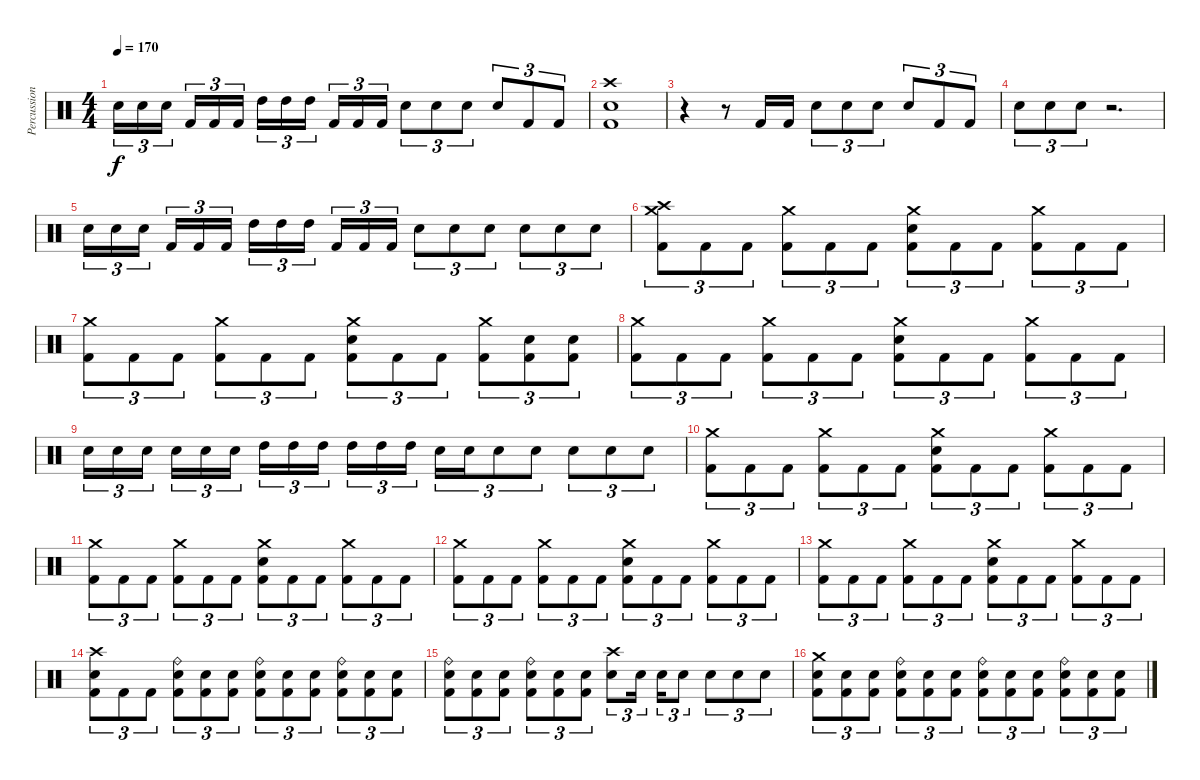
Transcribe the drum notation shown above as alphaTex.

\track ("Percussion" "Percussion") {instrument percussion}
\staff {score}
\articulation defaults
\ts (4 4)
\tempo 170
\clef neutral
\ks c "Electric Snare (hit)".16{tu (3 2) dy f} "Electric Snare (hit)".16{tu (3 2)} "Electric Snare (hit)".16{tu (3 2)} "Kick (hit) 2".16{tu (3 2)} "Kick (hit) 2".16{tu (3 2)} "Kick (hit) 2".16{tu (3 2)} "High Tom (hit)".16{tu (3 2)} "High Tom (hit)".16{tu (3 2)} "High Tom (hit)".16{tu (3 2)} "Kick (hit) 2".16{tu (3 2)} "Kick (hit) 2".16{tu (3 2)} "Kick (hit) 2".16{tu (3 2)} "Electric Snare (hit)".8{tu (3 2)} "Electric Snare (hit)".8{tu (3 2)} "Electric Snare (hit)".8{tu (3 2)} "Electric Snare (hit)".8{tu (3 2)} "Kick (hit) 2".8{tu (3 2)} "Kick (hit) 2".8{tu (3 2)}
|
("Crash high (hit)" "Electric Snare (hit)" "Kick (hit) 2").1 |
r.4 r.8 "Kick (hit) 2".16 "Kick (hit) 2".16 "Electric Snare (hit)".8{tu (3 2)} "Electric Snare (hit)".8{tu (3 2)} "Electric Snare (hit)".8{tu (3 2)} "Electric Snare (hit)".8{tu (3 2)} "Kick (hit) 2".8{tu (3 2)} "Kick (hit) 2".8{tu (3 2)} |
"Electric Snare (hit)".8{tu (3 2)} "Electric Snare (hit)".8{tu (3 2)} "Electric Snare (hit)".8{tu (3 2)} r.2{d} |
"Electric Snare (hit)".16{tu (3 2)} "Electric Snare (hit)".16{tu (3 2)} "Electric Snare (hit)".16{tu (3 2)} "Kick (hit) 2".16{tu (3 2)} "Kick (hit) 2".16{tu (3 2)} "Kick (hit) 2".16{tu (3 2)} "High Tom (hit)".16{tu (3 2)} "High Tom (hit)".16{tu (3 2)} "High Tom (hit)".16{tu (3 2)} "Kick (hit) 2".16{tu (3 2)} "Kick (hit) 2".16{tu (3 2)} "Kick (hit) 2".16{tu (3 2)} "Electric Snare (hit)".8{tu (3 2)} "Electric Snare (hit)".8{tu (3 2)} "Electric Snare (hit)".8{tu (3 2)} "Electric Snare (hit)".8{tu (3 2)} "Electric Snare (hit)".8{tu (3 2)} "Electric Snare (hit)".8{tu (3 2)} |
("Crash high (hit)" "Crash medium (hit)" "Kick (hit) 2").8{tu (3 2)} "Kick (hit) 2".8{tu (3 2)} "Kick (hit) 2".8{tu (3 2)} ("Crash medium (hit)" "Kick (hit) 2").8{tu (3 2)} "Kick (hit) 2".8{tu (3 2)} "Kick (hit) 2".8{tu (3 2)} ("Crash medium (hit)" "Electric Snare (hit)" "Kick (hit) 2").8{tu (3 2)} "Kick (hit) 2".8{tu (3 2)} "Kick (hit) 2".8{tu (3 2)} ("Crash medium (hit)" "Kick (hit) 2").8{tu (3 2)} "Kick (hit) 2".8{tu (3 2)} "Kick (hit) 2".8{tu (3 2)} |
("Crash medium (hit)" "Kick (hit) 2").8{tu (3 2)} "Kick (hit) 2".8{tu (3 2)} "Kick (hit) 2".8{tu (3 2)} ("Crash medium (hit)" "Kick (hit) 2").8{tu (3 2)} "Kick (hit) 2".8{tu (3 2)} "Kick (hit) 2".8{tu (3 2)} ("Crash medium (hit)" "Electric Snare (hit)" "Kick (hit) 2").8{tu (3 2)} "Kick (hit) 2".8{tu (3 2)} "Kick (hit) 2".8{tu (3 2)} ("Crash medium (hit)" "Kick (hit) 2").8{tu (3 2)} ("Electric Snare (hit)" "Kick (hit) 2").8{tu (3 2)} ("Electric Snare (hit)" "Kick (hit) 2").8{tu (3 2)} |
("Crash medium (hit)" "Kick (hit) 2").8{tu (3 2)} "Kick (hit) 2".8{tu (3 2)} "Kick (hit) 2".8{tu (3 2)} ("Crash medium (hit)" "Kick (hit) 2").8{tu (3 2)} "Kick (hit) 2".8{tu (3 2)} "Kick (hit) 2".8{tu (3 2)} ("Crash medium (hit)" "Electric Snare (hit)" "Kick (hit) 2").8{tu (3 2)} "Kick (hit) 2".8{tu (3 2)} "Kick (hit) 2".8{tu (3 2)} ("Crash medium (hit)" "Kick (hit) 2").8{tu (3 2)} "Kick (hit) 2".8{tu (3 2)} "Kick (hit) 2".8{tu (3 2)} |
"Electric Snare (hit)".16{tu (3 2)} "Electric Snare (hit)".16{tu (3 2)} "Electric Snare (hit)".16{tu (3 2)} "Electric Snare (hit)".16{tu (3 2)} "Electric Snare (hit)".16{tu (3 2)} "Electric Snare (hit)".16{tu (3 2)} "High Tom (hit)".16{tu (3 2)} "High Tom (hit)".16{tu (3 2)} "High Tom (hit)".16{tu (3 2)} "High Tom (hit)".16{tu (3 2)} "High Tom (hit)".16{tu (3 2)} "High Tom (hit)".16{tu (3 2)} "Electric Snare (hit)".16{tu (3 2)} "Electric Snare (hit)".16{tu (3 2)} "Electric Snare (hit)".8{tu (3 2)} "Electric Snare (hit)".8{tu (3 2)} "Electric Snare (hit)".8{tu (3 2)} "Electric Snare (hit)".8{tu (3 2)} "Electric Snare (hit)".8{tu (3 2)} |
("Crash medium (hit)" "Kick (hit) 2").8{tu (3 2)} "Kick (hit) 2".8{tu (3 2)} "Kick (hit) 2".8{tu (3 2)} ("Crash medium (hit)" "Kick (hit) 2").8{tu (3 2)} "Kick (hit) 2".8{tu (3 2)} "Kick (hit) 2".8{tu (3 2)} ("Crash medium (hit)" "Electric Snare (hit)" "Kick (hit) 2").8{tu (3 2)} "Kick (hit) 2".8{tu (3 2)} "Kick (hit) 2".8{tu (3 2)} ("Crash medium (hit)" "Kick (hit) 2").8{tu (3 2)} "Kick (hit) 2".8{tu (3 2)} "Kick (hit) 2".8{tu (3 2)} |
("Crash medium (hit)" "Kick (hit) 2").8{tu (3 2)} "Kick (hit) 2".8{tu (3 2)} "Kick (hit) 2".8{tu (3 2)} ("Crash medium (hit)" "Kick (hit) 2").8{tu (3 2)} "Kick (hit) 2".8{tu (3 2)} "Kick (hit) 2".8{tu (3 2)} ("Crash medium (hit)" "Electric Snare (hit)" "Kick (hit) 2").8{tu (3 2)} "Kick (hit) 2".8{tu (3 2)} "Kick (hit) 2".8{tu (3 2)} ("Crash medium (hit)" "Kick (hit) 2").8{tu (3 2)} "Kick (hit) 2".8{tu (3 2)} "Kick (hit) 2".8{tu (3 2)} |
("Crash medium (hit)" "Kick (hit) 2").8{tu (3 2)} "Kick (hit) 2".8{tu (3 2)} "Kick (hit) 2".8{tu (3 2)} ("Crash medium (hit)" "Kick (hit) 2").8{tu (3 2)} "Kick (hit) 2".8{tu (3 2)} "Kick (hit) 2".8{tu (3 2)} ("Crash medium (hit)" "Electric Snare (hit)" "Kick (hit) 2").8{tu (3 2)} "Kick (hit) 2".8{tu (3 2)} "Kick (hit) 2".8{tu (3 2)} ("Crash medium (hit)" "Kick (hit) 2").8{tu (3 2)} "Kick (hit) 2".8{tu (3 2)} "Kick (hit) 2".8{tu (3 2)} |
("Crash medium (hit)" "Kick (hit) 2").8{tu (3 2)} "Kick (hit) 2".8{tu (3 2)} "Kick (hit) 2".8{tu (3 2)} ("Crash medium (hit)" "Kick (hit) 2").8{tu (3 2)} "Kick (hit) 2".8{tu (3 2)} "Kick (hit) 2".8{tu (3 2)} ("Crash medium (hit)" "Electric Snare (hit)" "Kick (hit) 2").8{tu (3 2)} "Kick (hit) 2".8{tu (3 2)} "Kick (hit) 2".8{tu (3 2)} ("Crash medium (hit)" "Kick (hit) 2").8{tu (3 2)} "Kick (hit) 2".8{tu (3 2)} "Kick (hit) 2".8{tu (3 2)} |
("Crash high (hit)" "Electric Snare (hit)" "Kick (hit) 2").8{tu (3 2)} "Kick (hit) 2".8{tu (3 2)} "Kick (hit) 2".8{tu (3 2)} ("Ride (bell)" "Electric Snare (hit)" "Kick (hit) 2").8{tu (3 2)} ("Electric Snare (hit)" "Kick (hit) 2").8{tu (3 2)} ("Electric Snare (hit)" "Kick (hit) 2").8{tu (3 2)} ("Ride (bell)" "Electric Snare (hit)" "Kick (hit) 2").8{tu (3 2)} ("Electric Snare (hit)" "Kick (hit) 2").8{tu (3 2)} ("Electric Snare (hit)" "Kick (hit) 2").8{tu (3 2)} ("Ride (bell)" "Electric Snare (hit)" "Kick (hit) 2").8{tu (3 2)} ("Electric Snare (hit)" "Kick (hit) 2").8{tu (3 2)} ("Electric Snare (hit)" "Kick (hit) 2").8{tu (3 2)} |
("Ride (bell)" "Electric Snare (hit)" "Kick (hit) 2").8{tu (3 2)} ("Electric Snare (hit)" "Kick (hit) 2").8{tu (3 2)} ("Electric Snare (hit)" "Kick (hit) 2").8{tu (3 2)} ("Ride (bell)" "Electric Snare (hit)" "Kick (hit) 2").8{tu (3 2)} ("Electric Snare (hit)" "Kick (hit) 2").8{tu (3 2)} ("Electric Snare (hit)" "Kick (hit) 2").8{tu (3 2)} ("Crash high (hit)" "Electric Snare (hit)").8{tu (3 2)} "Electric Snare (hit)".16{tu (3 2)} "Electric Snare (hit)".16{tu (3 2)} "Electric Snare (hit)".8{tu (3 2)} "Electric Snare (hit)".8{tu (3 2)} "Electric Snare (hit)".8{tu (3 2)} "Electric Snare (hit)".8{tu (3 2)} |
("Crash medium (hit)" "Electric Snare (hit)" "Kick (hit) 2").8{tu (3 2)} ("Electric Snare (hit)" "Kick (hit) 2").8{tu (3 2)} ("Electric Snare (hit)" "Kick (hit) 2").8{tu (3 2)} ("Ride (bell)" "Electric Snare (hit)" "Kick (hit) 2").8{tu (3 2)} ("Electric Snare (hit)" "Kick (hit) 2").8{tu (3 2)} ("Electric Snare (hit)" "Kick (hit) 2").8{tu (3 2)} ("Ride (bell)" "Electric Snare (hit)" "Kick (hit) 2").8{tu (3 2)} ("Electric Snare (hit)" "Kick (hit) 2").8{tu (3 2)} ("Electric Snare (hit)" "Kick (hit) 2").8{tu (3 2)} ("Ride (bell)" "Electric Snare (hit)" "Kick (hit) 2").8{tu (3 2)} ("Electric Snare (hit)" "Kick (hit) 2").8{tu (3 2)} ("Electric Snare (hit)" "Kick (hit) 2").8{tu (3 2)}
